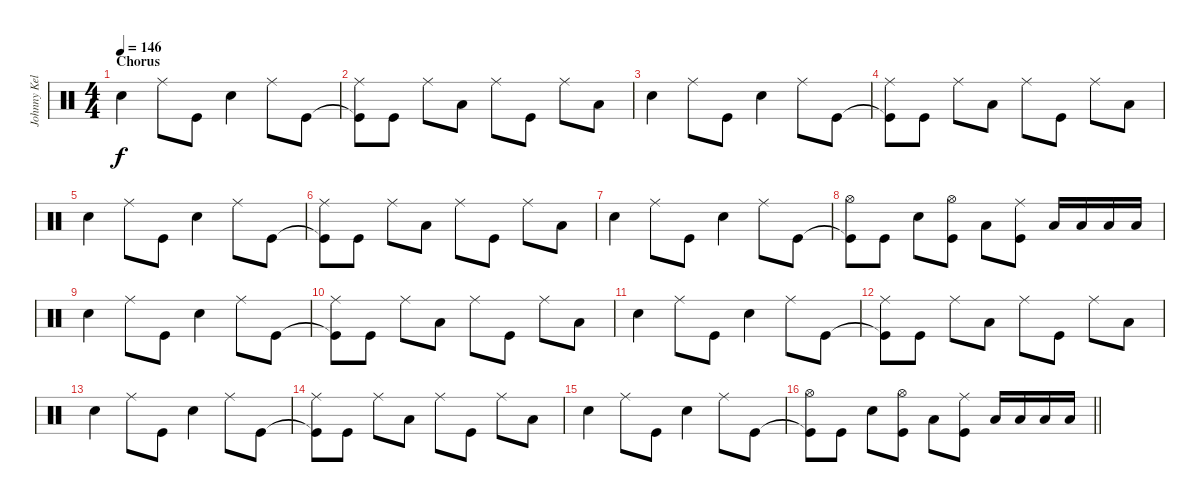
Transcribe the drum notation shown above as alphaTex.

\track ("Johnny Kelly" "Johnny Kel") {instrument percussion}
\staff {score}
\articulation defaults
\ts (4 4)
\section ("" "Chorus")
\tempo 146
\clef neutral
\ks c "Snare (hit) 2".4{dy f} "Ride (middle)".8 "Kick (hit)".8 "Snare (hit) 2".4 "Ride (middle)".8 "Kick (hit)".8
|
("Kick (hit)"{t} "Ride (middle)").8 "Kick (hit)".8 "Ride (middle)".8 "Low Tom (hit)".8 "Ride (middle)".8 "Kick (hit)".8 "Ride (middle)".8 "Low Tom (hit)".8 |
"Snare (hit) 2".4 "Ride (middle)".8 "Kick (hit)".8 "Snare (hit) 2".4 "Ride (middle)".8 "Kick (hit)".8 |
("Kick (hit)"{t} "Ride (middle)").8 "Kick (hit)".8 "Ride (middle)".8 "Low Tom (hit)".8 "Ride (middle)".8 "Kick (hit)".8 "Ride (middle)".8 "Low Tom (hit)".8 |
"Snare (hit) 2".4 "Ride (middle)".8 "Kick (hit)".8 "Snare (hit) 2".4 "Ride (middle)".8 "Kick (hit)".8 |
("Kick (hit)"{t} "Ride (middle)").8 "Kick (hit)".8 "Ride (middle)".8 "Low Tom (hit)".8 "Ride (middle)".8 "Kick (hit)".8 "Ride (middle)".8 "Low Tom (hit)".8 |
"Snare (hit) 2".4 "Ride (middle)".8 "Kick (hit)".8 "Snare (hit) 2".4 "Ride (middle)".8 "Kick (hit)".8 |
("Kick (hit)"{t} "Hi-Hat (open)").8 "Kick (hit)".8 "Snare (hit) 2".8 ("Kick (hit)" "Hi-Hat (open)").8 "Low Tom (hit)".8 ("Kick (hit)" "Ride (middle)").8 "Low Tom (hit)".16 "Low Tom (hit)".16 "Low Tom (hit)".16 "Low Tom (hit)".16 |
"Snare (hit) 2".4 "Ride (middle)".8 "Kick (hit)".8 "Snare (hit) 2".4 "Ride (middle)".8 "Kick (hit)".8 |
("Kick (hit)"{t} "Ride (middle)").8 "Kick (hit)".8 "Ride (middle)".8 "Low Tom (hit)".8 "Ride (middle)".8 "Kick (hit)".8 "Ride (middle)".8 "Low Tom (hit)".8 |
"Snare (hit) 2".4 "Ride (middle)".8 "Kick (hit)".8 "Snare (hit) 2".4 "Ride (middle)".8 "Kick (hit)".8 |
("Kick (hit)"{t} "Ride (middle)").8 "Kick (hit)".8 "Ride (middle)".8 "Low Tom (hit)".8 "Ride (middle)".8 "Kick (hit)".8 "Ride (middle)".8 "Low Tom (hit)".8 |
"Snare (hit) 2".4 "Ride (middle)".8 "Kick (hit)".8 "Snare (hit) 2".4 "Ride (middle)".8 "Kick (hit)".8 |
("Kick (hit)"{t} "Ride (middle)").8 "Kick (hit)".8 "Ride (middle)".8 "Low Tom (hit)".8 "Ride (middle)".8 "Kick (hit)".8 "Ride (middle)".8 "Low Tom (hit)".8 |
"Snare (hit) 2".4 "Ride (middle)".8 "Kick (hit)".8 "Snare (hit) 2".4 "Ride (middle)".8 "Kick (hit)".8 |
\barLineRight lightlight
("Kick (hit)"{t} "Hi-Hat (open)").8 "Kick (hit)".8 "Snare (hit) 2".8 ("Kick (hit)" "Hi-Hat (open)").8 "Low Tom (hit)".8 ("Kick (hit)" "Ride (middle)").8 "Low Tom (hit)".16 "Low Tom (hit)".16 "Low Tom (hit)".16 "Low Tom (hit)".16
